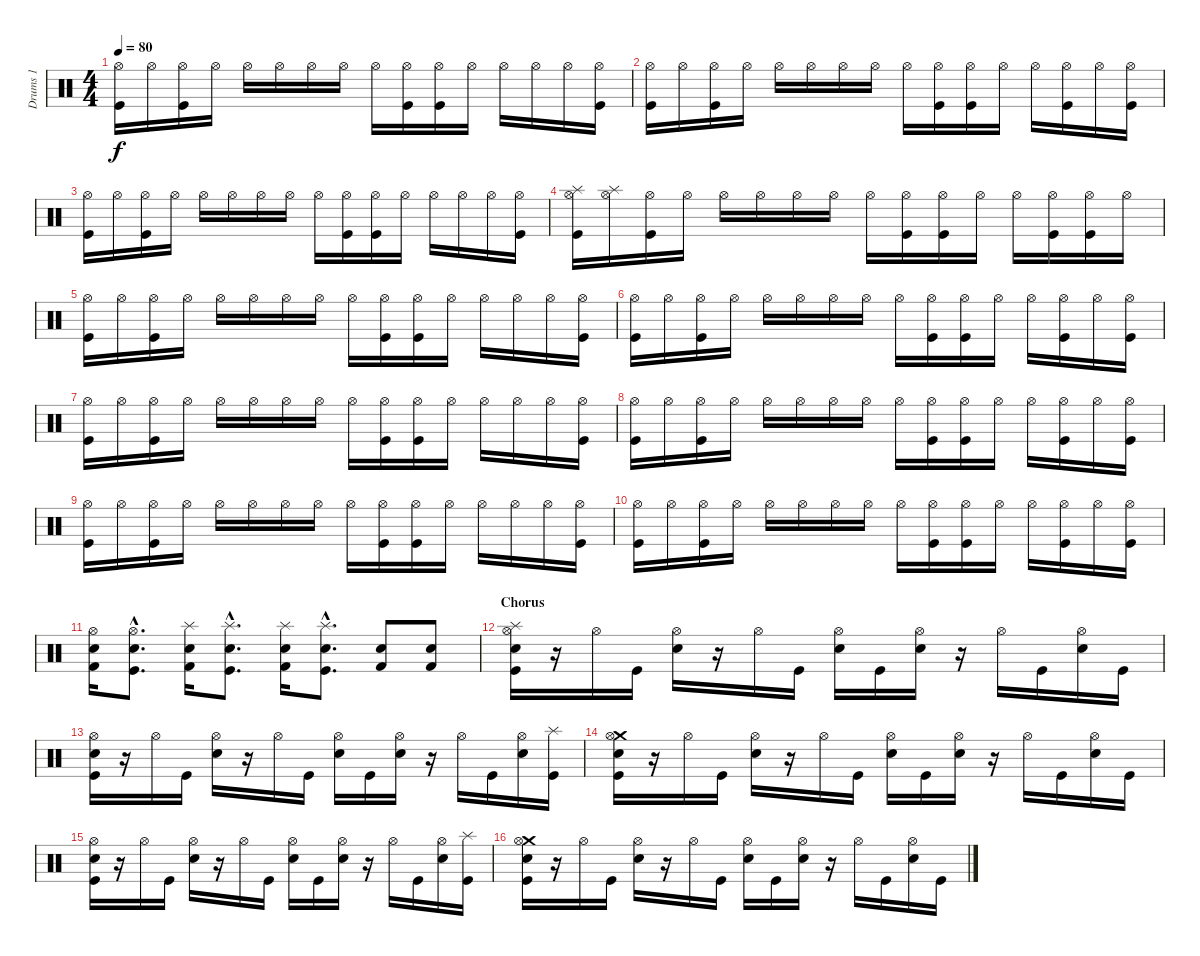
\track ("Drums 1" "Drums 1") {instrument percussion}
\staff {score}
\articulation defaults
\ts (4 4)
\tempo 80
\clef neutral
\ks c
("Hi-Hat (open)" "Kick (hit)").16{dy f} "Hi-Hat (open)".16 ("Hi-Hat (open)" "Kick (hit)").16 "Hi-Hat (open)".16 "Hi-Hat (open)".16 "Hi-Hat (open)".16 "Hi-Hat (open)".16 "Hi-Hat (open)".16 "Hi-Hat (open)".16 ("Hi-Hat (open)" "Kick (hit)").16 ("Hi-Hat (open)" "Kick (hit)").16 "Hi-Hat (open)".16 "Hi-Hat (open)".16 "Hi-Hat (open)".16 "Hi-Hat (open)".16 ("Hi-Hat (open)" "Kick (hit)").16 |
("Hi-Hat (open)" "Kick (hit)").16 "Hi-Hat (open)".16 ("Hi-Hat (open)" "Kick (hit)").16 "Hi-Hat (open)".16 "Hi-Hat (open)".16 "Hi-Hat (open)".16 "Hi-Hat (open)".16 "Hi-Hat (open)".16 "Hi-Hat (open)".16 ("Hi-Hat (open)" "Kick (hit)").16 ("Hi-Hat (open)" "Kick (hit)").16 "Hi-Hat (open)".16 "Hi-Hat (open)".16 ("Hi-Hat (open)" "Kick (hit)").16 "Hi-Hat (open)".16 ("Hi-Hat (open)" "Kick (hit)").16 |
("Hi-Hat (open)" "Kick (hit)").16 "Hi-Hat (open)".16 ("Hi-Hat (open)" "Kick (hit)").16 "Hi-Hat (open)".16 "Hi-Hat (open)".16 "Hi-Hat (open)".16 "Hi-Hat (open)".16 "Hi-Hat (open)".16 "Hi-Hat (open)".16 ("Hi-Hat (open)" "Kick (hit)").16 ("Hi-Hat (open)" "Kick (hit)").16 "Hi-Hat (open)".16 "Hi-Hat (open)".16 "Hi-Hat (open)".16 "Hi-Hat (open)".16 ("Hi-Hat (open)" "Kick (hit)").16 |
("Splash (hit)" "Hi-Hat (open)" "Kick (hit)").16 ("Splash (hit)" "Hi-Hat (open)").16 ("Hi-Hat (open)" "Kick (hit)").16 "Hi-Hat (open)".16 "Hi-Hat (open)".16 "Hi-Hat (open)".16 "Hi-Hat (open)".16 "Hi-Hat (open)".16 "Hi-Hat (open)".16 ("Hi-Hat (open)" "Kick (hit)").16 ("Hi-Hat (open)" "Kick (hit)").16 "Hi-Hat (open)".16 "Hi-Hat (open)".16 ("Hi-Hat (open)" "Kick (hit)").16 ("Hi-Hat (open)" "Kick (hit)").16 "Hi-Hat (open)".16 |
("Hi-Hat (open)" "Kick (hit)").16 "Hi-Hat (open)".16 ("Hi-Hat (open)" "Kick (hit)").16 "Hi-Hat (open)".16 "Hi-Hat (open)".16 "Hi-Hat (open)".16 "Hi-Hat (open)".16 "Hi-Hat (open)".16 "Hi-Hat (open)".16 ("Hi-Hat (open)" "Kick (hit)").16 ("Hi-Hat (open)" "Kick (hit)").16 "Hi-Hat (open)".16 "Hi-Hat (open)".16 "Hi-Hat (open)".16 "Hi-Hat (open)".16 ("Hi-Hat (open)" "Kick (hit)").16 |
("Hi-Hat (open)" "Kick (hit)").16 "Hi-Hat (open)".16 ("Hi-Hat (open)" "Kick (hit)").16 "Hi-Hat (open)".16 "Hi-Hat (open)".16 "Hi-Hat (open)".16 "Hi-Hat (open)".16 "Hi-Hat (open)".16 "Hi-Hat (open)".16 ("Hi-Hat (open)" "Kick (hit)").16 ("Hi-Hat (open)" "Kick (hit)").16 "Hi-Hat (open)".16 "Hi-Hat (open)".16 ("Hi-Hat (open)" "Kick (hit)").16 "Hi-Hat (open)".16 ("Hi-Hat (open)" "Kick (hit)").16 |
("Hi-Hat (open)" "Kick (hit)").16 "Hi-Hat (open)".16 ("Hi-Hat (open)" "Kick (hit)").16 "Hi-Hat (open)".16 "Hi-Hat (open)".16 "Hi-Hat (open)".16 "Hi-Hat (open)".16 "Hi-Hat (open)".16 "Hi-Hat (open)".16 ("Hi-Hat (open)" "Kick (hit)").16 ("Hi-Hat (open)" "Kick (hit)").16 "Hi-Hat (open)".16 "Hi-Hat (open)".16 "Hi-Hat (open)".16 "Hi-Hat (open)".16 ("Hi-Hat (open)" "Kick (hit)").16 |
("Hi-Hat (open)" "Kick (hit)").16 "Hi-Hat (open)".16 ("Hi-Hat (open)" "Kick (hit)").16 "Hi-Hat (open)".16 "Hi-Hat (open)".16 "Hi-Hat (open)".16 "Hi-Hat (open)".16 "Hi-Hat (open)".16 "Hi-Hat (open)".16 ("Hi-Hat (open)" "Kick (hit)").16 ("Hi-Hat (open)" "Kick (hit)").16 "Hi-Hat (open)".16 "Hi-Hat (open)".16 ("Hi-Hat (open)" "Kick (hit)").16 "Hi-Hat (open)".16 ("Hi-Hat (open)" "Kick (hit)").16 |
("Hi-Hat (open)" "Kick (hit)").16 "Hi-Hat (open)".16 ("Hi-Hat (open)" "Kick (hit)").16 "Hi-Hat (open)".16 "Hi-Hat (open)".16 "Hi-Hat (open)".16 "Hi-Hat (open)".16 "Hi-Hat (open)".16 "Hi-Hat (open)".16 ("Hi-Hat (open)" "Kick (hit)").16 ("Hi-Hat (open)" "Kick (hit)").16 "Hi-Hat (open)".16 "Hi-Hat (open)".16 "Hi-Hat (open)".16 "Hi-Hat (open)".16 ("Hi-Hat (open)" "Kick (hit)").16 |
("Hi-Hat (open)" "Kick (hit)").16 "Hi-Hat (open)".16 ("Hi-Hat (open)" "Kick (hit)").16 "Hi-Hat (open)".16 "Hi-Hat (open)".16 "Hi-Hat (open)".16 "Hi-Hat (open)".16 "Hi-Hat (open)".16 "Hi-Hat (open)".16 ("Hi-Hat (open)" "Kick (hit)").16 ("Hi-Hat (open)" "Kick (hit)").16 "Hi-Hat (open)".16 "Hi-Hat (open)".16 ("Hi-Hat (open)" "Kick (hit)").16 "Hi-Hat (open)".16 ("Hi-Hat (open)" "Kick (hit)").16 |
("Hi-Hat (open)" "Electric Snare (hit)" "Kick (hit) 2").16{volume 16} ("Hi-Hat (open)"{hac} "Electric Snare (hit)"{hac} "Kick (hit)"{hac}).8{d} ("Splash (hit)" "Electric Snare (hit)" "Kick (hit) 2").16 ("Splash (hit)"{hac} "Electric Snare (hit)"{hac} "Kick (hit)"{hac}).8{d} ("Splash (hit)" "Electric Snare (hit)" "Kick (hit) 2").16 ("Splash (hit)"{hac} "Electric Snare (hit)"{hac} "Kick (hit)"{hac}).8{d} ("Electric Snare (hit)" "Kick (hit) 2").8 ("Electric Snare (hit)" "Kick (hit) 2").8 |
\section ("" "Chorus")
("Splash (hit)" "Hi-Hat (open)" "Electric Snare (hit)" "Kick (hit)").16 r.16 "Hi-Hat (open)".16 "Kick (hit)".16 ("Hi-Hat (open)" "Electric Snare (hit)").16 r.16 "Hi-Hat (open)".16 "Kick (hit)".16 ("Hi-Hat (open)" "Electric Snare (hit)").16 "Kick (hit)".16 ("Hi-Hat (open)" "Electric Snare (hit)").16 r.16 "Hi-Hat (open)".16 "Kick (hit)".16 ("Hi-Hat (open)" "Electric Snare (hit)").16 "Kick (hit)".16 |
("Hi-Hat (open)" "Electric Snare (hit)" "Kick (hit)").16 r.16 "Hi-Hat (open)".16 "Kick (hit)".16 ("Hi-Hat (open)" "Electric Snare (hit)").16 r.16 "Hi-Hat (open)".16 "Kick (hit)".16 ("Hi-Hat (open)" "Electric Snare (hit)").16 "Kick (hit)".16 ("Hi-Hat (open)" "Electric Snare (hit)").16 r.16 "Hi-Hat (open)".16 "Kick (hit)".16 ("Hi-Hat (open)" "Electric Snare (hit)").16 ("Splash (hit)" "Kick (hit)").16 |
("Crash medium (hit)" "Hi-Hat (open)" "Electric Snare (hit)" "Kick (hit)").16 r.16 "Hi-Hat (open)".16 "Kick (hit)".16 ("Hi-Hat (open)" "Electric Snare (hit)").16 r.16 "Hi-Hat (open)".16 "Kick (hit)".16 ("Hi-Hat (open)" "Electric Snare (hit)").16 "Kick (hit)".16 ("Hi-Hat (open)" "Electric Snare (hit)").16 r.16 "Hi-Hat (open)".16 "Kick (hit)".16 ("Hi-Hat (open)" "Electric Snare (hit)").16 "Kick (hit)".16 |
("Hi-Hat (open)" "Electric Snare (hit)" "Kick (hit)").16 r.16 "Hi-Hat (open)".16 "Kick (hit)".16 ("Hi-Hat (open)" "Electric Snare (hit)").16 r.16 "Hi-Hat (open)".16 "Kick (hit)".16 ("Hi-Hat (open)" "Electric Snare (hit)").16 "Kick (hit)".16 ("Hi-Hat (open)" "Electric Snare (hit)").16 r.16 "Hi-Hat (open)".16 "Kick (hit)".16 ("Hi-Hat (open)" "Electric Snare (hit)").16 ("Splash (hit)" "Kick (hit)").16 |
("Crash medium (hit)" "Hi-Hat (open)" "Electric Snare (hit)" "Kick (hit)").16 r.16 "Hi-Hat (open)".16 "Kick (hit)".16 ("Hi-Hat (open)" "Electric Snare (hit)").16 r.16 "Hi-Hat (open)".16 "Kick (hit)".16 ("Hi-Hat (open)" "Electric Snare (hit)").16 "Kick (hit)".16 ("Hi-Hat (open)" "Electric Snare (hit)").16 r.16 "Hi-Hat (open)".16 "Kick (hit)".16 ("Hi-Hat (open)" "Electric Snare (hit)").16 "Kick (hit)".16
